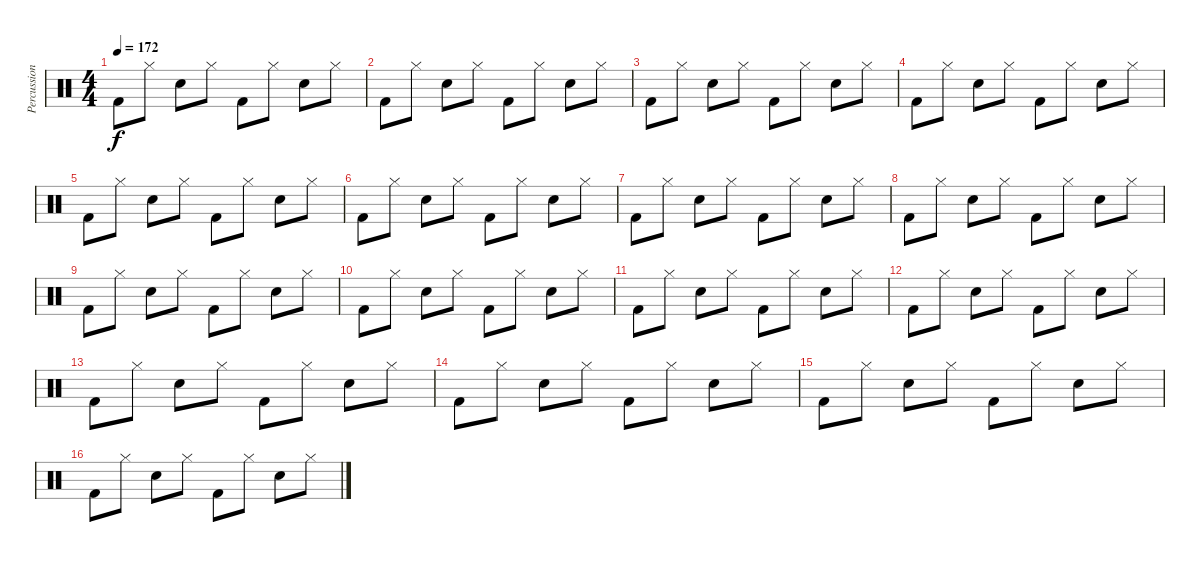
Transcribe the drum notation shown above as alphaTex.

\track ("Percussion" "Percussion") {instrument percussion}
\staff {score}
\articulation defaults
\ts (4 4)
\tempo 172
\clef neutral
\ks c "Kick (hit) 2".8{dy f} "Hi-Hat (closed)".8 "Snare (hit) 2".8 "Hi-Hat (closed)".8 "Kick (hit) 2".8 "Hi-Hat (closed)".8 "Snare (hit) 2".8 "Hi-Hat (closed)".8
|
"Kick (hit) 2".8 "Hi-Hat (closed)".8 "Snare (hit) 2".8 "Hi-Hat (closed)".8 "Kick (hit) 2".8 "Hi-Hat (closed)".8 "Snare (hit) 2".8 "Hi-Hat (closed)".8 |
"Kick (hit) 2".8 "Hi-Hat (closed)".8 "Snare (hit) 2".8 "Hi-Hat (closed)".8 "Kick (hit) 2".8 "Hi-Hat (closed)".8 "Snare (hit) 2".8 "Hi-Hat (closed)".8 |
"Kick (hit) 2".8 "Hi-Hat (closed)".8 "Snare (hit) 2".8 "Hi-Hat (closed)".8 "Kick (hit) 2".8 "Hi-Hat (closed)".8 "Snare (hit) 2".8 "Hi-Hat (closed)".8 |
"Kick (hit) 2".8 "Hi-Hat (closed)".8 "Snare (hit) 2".8 "Hi-Hat (closed)".8 "Kick (hit) 2".8 "Hi-Hat (closed)".8 "Snare (hit) 2".8 "Hi-Hat (closed)".8 |
"Kick (hit) 2".8 "Hi-Hat (closed)".8 "Snare (hit) 2".8 "Hi-Hat (closed)".8 "Kick (hit) 2".8 "Hi-Hat (closed)".8 "Snare (hit) 2".8 "Hi-Hat (closed)".8 |
"Kick (hit) 2".8 "Hi-Hat (closed)".8 "Snare (hit) 2".8 "Hi-Hat (closed)".8 "Kick (hit) 2".8 "Hi-Hat (closed)".8 "Snare (hit) 2".8 "Hi-Hat (closed)".8 |
"Kick (hit) 2".8 "Hi-Hat (closed)".8 "Snare (hit) 2".8 "Hi-Hat (closed)".8 "Kick (hit) 2".8 "Hi-Hat (closed)".8 "Snare (hit) 2".8 "Hi-Hat (closed)".8 |
"Kick (hit) 2".8 "Hi-Hat (closed)".8 "Snare (hit) 2".8 "Hi-Hat (closed)".8 "Kick (hit) 2".8 "Hi-Hat (closed)".8 "Snare (hit) 2".8 "Hi-Hat (closed)".8 |
"Kick (hit) 2".8 "Hi-Hat (closed)".8 "Snare (hit) 2".8 "Hi-Hat (closed)".8 "Kick (hit) 2".8 "Hi-Hat (closed)".8 "Snare (hit) 2".8 "Hi-Hat (closed)".8 |
"Kick (hit) 2".8 "Hi-Hat (closed)".8 "Snare (hit) 2".8 "Hi-Hat (closed)".8 "Kick (hit) 2".8 "Hi-Hat (closed)".8 "Snare (hit) 2".8 "Hi-Hat (closed)".8 |
"Kick (hit) 2".8 "Hi-Hat (closed)".8 "Snare (hit) 2".8 "Hi-Hat (closed)".8 "Kick (hit) 2".8 "Hi-Hat (closed)".8 "Snare (hit) 2".8 "Hi-Hat (closed)".8 |
"Kick (hit) 2".8 "Hi-Hat (closed)".8 "Snare (hit) 2".8 "Hi-Hat (closed)".8 "Kick (hit) 2".8 "Hi-Hat (closed)".8 "Snare (hit) 2".8 "Hi-Hat (closed)".8 |
"Kick (hit) 2".8 "Hi-Hat (closed)".8 "Snare (hit) 2".8 "Hi-Hat (closed)".8 "Kick (hit) 2".8 "Hi-Hat (closed)".8 "Snare (hit) 2".8 "Hi-Hat (closed)".8 |
"Kick (hit) 2".8 "Hi-Hat (closed)".8 "Snare (hit) 2".8 "Hi-Hat (closed)".8 "Kick (hit) 2".8 "Hi-Hat (closed)".8 "Snare (hit) 2".8 "Hi-Hat (closed)".8 |
"Kick (hit) 2".8 "Hi-Hat (closed)".8 "Snare (hit) 2".8 "Hi-Hat (closed)".8 "Kick (hit) 2".8 "Hi-Hat (closed)".8 "Snare (hit) 2".8 "Hi-Hat (closed)".8
